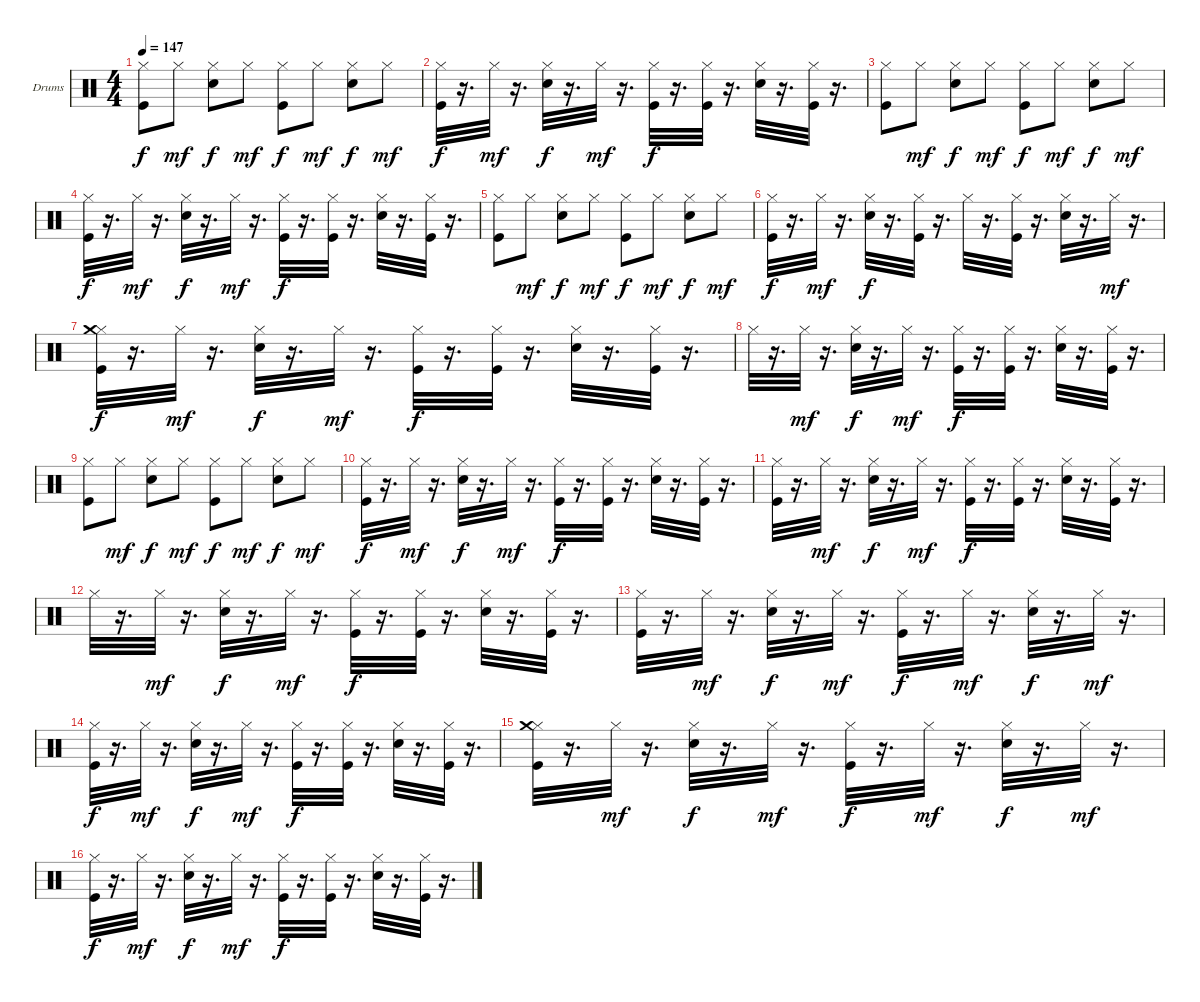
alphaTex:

\bracketExtendMode groupsimilarinstruments
\firstSystemTrackNameOrientation horizontal
\otherSystemsTrackNameOrientation horizontal
\track ("Drumkit" "Drums") {instrument percussion}
\staff {score}
\articulation defaults
\ts (4 4)
\tempo 147
\clef neutral
\ks c
("Hi-Hat (closed)" "Kick (hit)").8{dy f} "Hi-Hat (closed)".8{dy mf} ("Hi-Hat (closed)" "Snare (hit) 2").8{dy f} "Hi-Hat (closed)".8{dy mf} ("Hi-Hat (closed)" "Kick (hit)").8{dy f} "Hi-Hat (closed)".8{dy mf} ("Hi-Hat (closed)" "Snare (hit) 2").8{dy f} "Hi-Hat (closed)".8{dy mf} |
("Kick (hit)" "Hi-Hat (closed)").32{dy f} r.16{d} "Hi-Hat (closed)".32{dy mf} r.16{d} ("Snare (hit) 2" "Hi-Hat (closed)").32{dy f} r.16{d} "Hi-Hat (closed)".32{dy mf} r.16{d} ("Kick (hit)" "Hi-Hat (closed)").32{dy f} r.16{d} ("Kick (hit)" "Hi-Hat (closed)").32 r.16{d} ("Snare (hit) 2" "Hi-Hat (closed)").32 r.16{d} ("Kick (hit)" "Hi-Hat (closed)").32 r.16{d} |
("Hi-Hat (closed)" "Kick (hit)").8 "Hi-Hat (closed)".8{dy mf} ("Hi-Hat (closed)" "Snare (hit) 2").8{dy f} "Hi-Hat (closed)".8{dy mf} ("Hi-Hat (closed)" "Kick (hit)").8{dy f} "Hi-Hat (closed)".8{dy mf} ("Hi-Hat (closed)" "Snare (hit) 2").8{dy f} "Hi-Hat (closed)".8{dy mf} |
("Kick (hit)" "Hi-Hat (closed)").32{dy f} r.16{d} "Hi-Hat (closed)".32{dy mf} r.16{d} ("Snare (hit) 2" "Hi-Hat (closed)").32{dy f} r.16{d} "Hi-Hat (closed)".32{dy mf} r.16{d} ("Kick (hit)" "Hi-Hat (closed)").32{dy f} r.16{d} ("Kick (hit)" "Hi-Hat (closed)").32 r.16{d} ("Snare (hit) 2" "Hi-Hat (closed)").32 r.16{d} ("Kick (hit)" "Hi-Hat (closed)").32 r.16{d} |
("Hi-Hat (closed)" "Kick (hit)").8 "Hi-Hat (closed)".8{dy mf} ("Hi-Hat (closed)" "Snare (hit) 2").8{dy f} "Hi-Hat (closed)".8{dy mf} ("Hi-Hat (closed)" "Kick (hit)").8{dy f} "Hi-Hat (closed)".8{dy mf} ("Hi-Hat (closed)" "Snare (hit) 2").8{dy f} "Hi-Hat (closed)".8{dy mf} |
("Kick (hit)" "Hi-Hat (closed)").32{dy f} r.16{d} "Hi-Hat (closed)".32{dy mf} r.16{d} ("Snare (hit) 2" "Hi-Hat (closed)").32{dy f} r.16{d} ("Kick (hit)" "Hi-Hat (closed)").32 r.16{d} "Hi-Hat (closed)".32 r.16{d} ("Kick (hit)" "Hi-Hat (closed)").32 r.16{d} ("Snare (hit) 2" "Hi-Hat (closed)").32 r.16{d} "Hi-Hat (closed)".32{dy mf} r.16{d} |
("Kick (hit)" "Hi-Hat (closed)" "Crash medium (hit)").32{dy f} r.16{d} "Hi-Hat (closed)".32{dy mf} r.16{d} ("Snare (hit) 2" "Hi-Hat (closed)").32{dy f} r.16{d} "Hi-Hat (closed)".32{dy mf} r.16{d} ("Kick (hit)" "Hi-Hat (closed)").32{dy f} r.16{d} ("Kick (hit)" "Hi-Hat (closed)").32 r.16{d} ("Snare (hit) 2" "Hi-Hat (closed)").32 r.16{d} ("Kick (hit)" "Hi-Hat (closed)").32 r.16{d} |
"Hi-Hat (closed)".32 r.16{d} "Hi-Hat (closed)".32{dy mf} r.16{d} ("Snare (hit) 2" "Hi-Hat (closed)").32{dy f} r.16{d} "Hi-Hat (closed)".32{dy mf} r.16{d} ("Kick (hit)" "Hi-Hat (closed)").32{dy f} r.16{d} ("Kick (hit)" "Hi-Hat (closed)").32 r.16{d} ("Snare (hit) 2" "Hi-Hat (closed)").32 r.16{d} ("Kick (hit)" "Hi-Hat (closed)").32 r.16{d} |
("Hi-Hat (closed)" "Kick (hit)").8 "Hi-Hat (closed)".8{dy mf} ("Hi-Hat (closed)" "Snare (hit) 2").8{dy f} "Hi-Hat (closed)".8{dy mf} ("Hi-Hat (closed)" "Kick (hit)").8{dy f} "Hi-Hat (closed)".8{dy mf} ("Hi-Hat (closed)" "Snare (hit) 2").8{dy f} "Hi-Hat (closed)".8{dy mf} |
("Kick (hit)" "Hi-Hat (closed)").32{dy f} r.16{d} "Hi-Hat (closed)".32{dy mf} r.16{d} ("Snare (hit) 2" "Hi-Hat (closed)").32{dy f} r.16{d} "Hi-Hat (closed)".32{dy mf} r.16{d} ("Kick (hit)" "Hi-Hat (closed)").32{dy f} r.16{d} ("Kick (hit)" "Hi-Hat (closed)").32 r.16{d} ("Snare (hit) 2" "Hi-Hat (closed)").32 r.16{d} ("Kick (hit)" "Hi-Hat (closed)").32 r.16{d} |
("Kick (hit)" "Hi-Hat (closed)").32 r.16{d} "Hi-Hat (closed)".32{dy mf} r.16{d} ("Snare (hit) 2" "Hi-Hat (closed)").32{dy f} r.16{d} "Hi-Hat (closed)".32{dy mf} r.16{d} ("Kick (hit)" "Hi-Hat (closed)").32{dy f} r.16{d} ("Kick (hit)" "Hi-Hat (closed)").32 r.16{d} ("Snare (hit) 2" "Hi-Hat (closed)").32 r.16{d} ("Kick (hit)" "Hi-Hat (closed)").32 r.16{d} |
"Hi-Hat (closed)".32 r.16{d} "Hi-Hat (closed)".32{dy mf} r.16{d} ("Snare (hit) 2" "Hi-Hat (closed)").32{dy f} r.16{d} "Hi-Hat (closed)".32{dy mf} r.16{d} ("Kick (hit)" "Hi-Hat (closed)").32{dy f} r.16{d} ("Kick (hit)" "Hi-Hat (closed)").32 r.16{d} ("Snare (hit) 2" "Hi-Hat (closed)").32 r.16{d} ("Kick (hit)" "Hi-Hat (closed)").32 r.16{d} |
("Kick (hit)" "Hi-Hat (closed)").32 r.16{d} "Hi-Hat (closed)".32{dy mf} r.16{d} ("Snare (hit) 2" "Hi-Hat (closed)").32{dy f} r.16{d} "Hi-Hat (closed)".32{dy mf} r.16{d} ("Kick (hit)" "Hi-Hat (closed)").32{dy f} r.16{d} "Hi-Hat (closed)".32{dy mf} r.16{d} ("Snare (hit) 2" "Hi-Hat (closed)").32{dy f} r.16{d} "Hi-Hat (closed)".32{dy mf} r.16{d} |
("Kick (hit)" "Hi-Hat (closed)").32{dy f} r.16{d} "Hi-Hat (closed)".32{dy mf} r.16{d} ("Snare (hit) 2" "Hi-Hat (closed)").32{dy f} r.16{d} "Hi-Hat (closed)".32{dy mf} r.16{d} ("Kick (hit)" "Hi-Hat (closed)").32{dy f} r.16{d} ("Kick (hit)" "Hi-Hat (closed)").32 r.16{d} ("Snare (hit) 2" "Hi-Hat (closed)").32 r.16{d} ("Kick (hit)" "Hi-Hat (closed)").32 r.16{d} |
("Kick (hit)" "Hi-Hat (closed)" "Crash medium (hit)").32 r.16{d} "Hi-Hat (closed)".32{dy mf} r.16{d} ("Snare (hit) 2" "Hi-Hat (closed)").32{dy f} r.16{d} "Hi-Hat (closed)".32{dy mf} r.16{d} ("Kick (hit)" "Hi-Hat (closed)").32{dy f} r.16{d} "Hi-Hat (closed)".32{dy mf} r.16{d} ("Snare (hit) 2" "Hi-Hat (closed)").32{dy f} r.16{d} "Hi-Hat (closed)".32{dy mf} r.16{d} |
("Kick (hit)" "Hi-Hat (closed)").32{dy f} r.16{d} "Hi-Hat (closed)".32{dy mf} r.16{d} ("Snare (hit) 2" "Hi-Hat (closed)").32{dy f} r.16{d} "Hi-Hat (closed)".32{dy mf} r.16{d} ("Kick (hit)" "Hi-Hat (closed)").32{dy f} r.16{d} ("Kick (hit)" "Hi-Hat (closed)").32 r.16{d} ("Snare (hit) 2" "Hi-Hat (closed)").32 r.16{d} ("Kick (hit)" "Hi-Hat (closed)").32 r.16{d}
